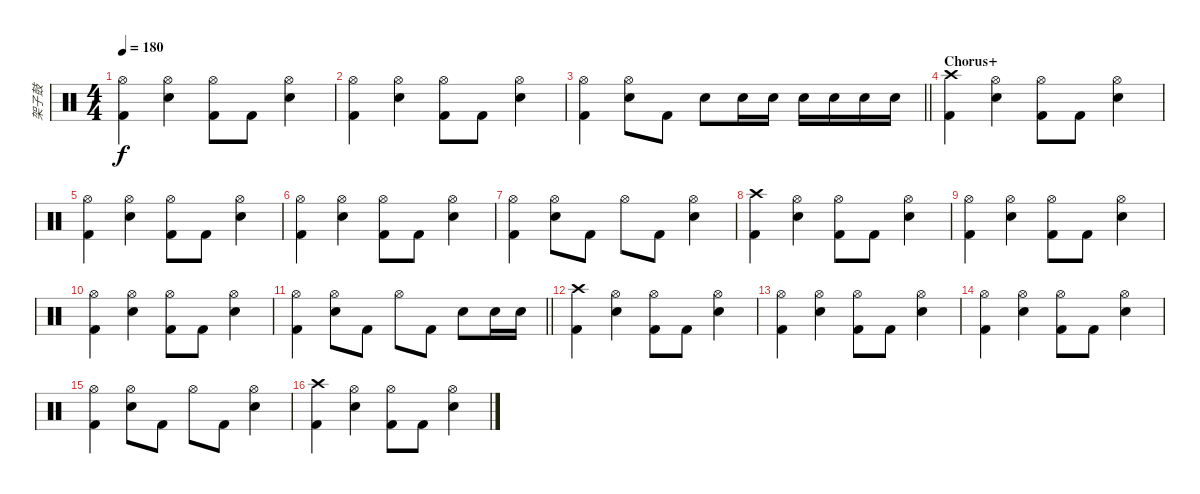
\track ("架子鼓" "架子鼓") {instrument percussion}
\staff {score}
\articulation defaults
\ts (4 4)
\tempo 180
\clef neutral
\ks c
("Hi-Hat (open)" "Kick (hit) 2").4{dy f} ("Hi-Hat (open)" "Snare (hit) 2").4 ("Hi-Hat (open)" "Kick (hit) 2").8 "Kick (hit) 2".8 ("Hi-Hat (open)" "Snare (hit) 2").4 |
("Hi-Hat (open)" "Kick (hit) 2").4 ("Hi-Hat (open)" "Snare (hit) 2").4 ("Hi-Hat (open)" "Kick (hit) 2").8 "Kick (hit) 2".8 ("Hi-Hat (open)" "Snare (hit) 2").4 |
\barLineRight lightlight
("Hi-Hat (open)" "Kick (hit) 2").4 ("Hi-Hat (open)" "Snare (hit) 2").8 "Kick (hit) 2".8 "Snare (hit) 2".8 "Snare (hit) 2".16 "Snare (hit) 2".16 "Snare (hit) 2".16 "Snare (hit) 2".16 "Snare (hit) 2".16 "Snare (hit) 2".16 |
\section ("" "Chorus+")
("Crash high (hit)" "Kick (hit) 2").4 ("Hi-Hat (open)" "Snare (hit) 2").4 ("Hi-Hat (open)" "Kick (hit) 2").8 "Kick (hit) 2".8 ("Hi-Hat (open)" "Snare (hit) 2").4 |
("Hi-Hat (open)" "Kick (hit) 2").4 ("Hi-Hat (open)" "Snare (hit) 2").4 ("Hi-Hat (open)" "Kick (hit) 2").8 "Kick (hit) 2".8 ("Hi-Hat (open)" "Snare (hit) 2").4 |
("Hi-Hat (open)" "Kick (hit) 2").4 ("Hi-Hat (open)" "Snare (hit) 2").4 ("Hi-Hat (open)" "Kick (hit) 2").8 "Kick (hit) 2".8 ("Hi-Hat (open)" "Snare (hit) 2").4 |
("Hi-Hat (open)" "Kick (hit) 2").4 ("Hi-Hat (open)" "Snare (hit) 2").8 "Kick (hit) 2".8 "Hi-Hat (open)".8 "Kick (hit) 2".8 ("Hi-Hat (open)" "Snare (hit) 2").4 |
("Crash high (hit)" "Kick (hit) 2").4 ("Hi-Hat (open)" "Snare (hit) 2").4 ("Hi-Hat (open)" "Kick (hit) 2").8 "Kick (hit) 2".8 ("Hi-Hat (open)" "Snare (hit) 2").4 |
("Hi-Hat (open)" "Kick (hit) 2").4 ("Hi-Hat (open)" "Snare (hit) 2").4 ("Hi-Hat (open)" "Kick (hit) 2").8 "Kick (hit) 2".8 ("Hi-Hat (open)" "Snare (hit) 2").4 |
("Hi-Hat (open)" "Kick (hit) 2").4 ("Hi-Hat (open)" "Snare (hit) 2").4 ("Hi-Hat (open)" "Kick (hit) 2").8 "Kick (hit) 2".8 ("Hi-Hat (open)" "Snare (hit) 2").4 |
\barLineRight lightlight
("Hi-Hat (open)" "Kick (hit) 2").4 ("Hi-Hat (open)" "Snare (hit) 2").8 "Kick (hit) 2".8 "Hi-Hat (open)".8 "Kick (hit) 2".8 "Snare (hit) 2".8 "Snare (hit) 2".16 "Snare (hit) 2".16 |
("Crash high (hit)" "Kick (hit) 2").4 ("Hi-Hat (open)" "Snare (hit) 2").4 ("Hi-Hat (open)" "Kick (hit) 2").8 "Kick (hit) 2".8 ("Hi-Hat (open)" "Snare (hit) 2").4 |
("Hi-Hat (open)" "Kick (hit) 2").4 ("Hi-Hat (open)" "Snare (hit) 2").4 ("Hi-Hat (open)" "Kick (hit) 2").8 "Kick (hit) 2".8 ("Hi-Hat (open)" "Snare (hit) 2").4 |
("Hi-Hat (open)" "Kick (hit) 2").4 ("Hi-Hat (open)" "Snare (hit) 2").4 ("Hi-Hat (open)" "Kick (hit) 2").8 "Kick (hit) 2".8 ("Hi-Hat (open)" "Snare (hit) 2").4 |
("Hi-Hat (open)" "Kick (hit) 2").4 ("Hi-Hat (open)" "Snare (hit) 2").8 "Kick (hit) 2".8 "Hi-Hat (open)".8 "Kick (hit) 2".8 ("Hi-Hat (open)" "Snare (hit) 2").4 |
("Crash high (hit)" "Kick (hit) 2").4 ("Hi-Hat (open)" "Snare (hit) 2").4 ("Hi-Hat (open)" "Kick (hit) 2").8 "Kick (hit) 2".8 ("Hi-Hat (open)" "Snare (hit) 2").4
